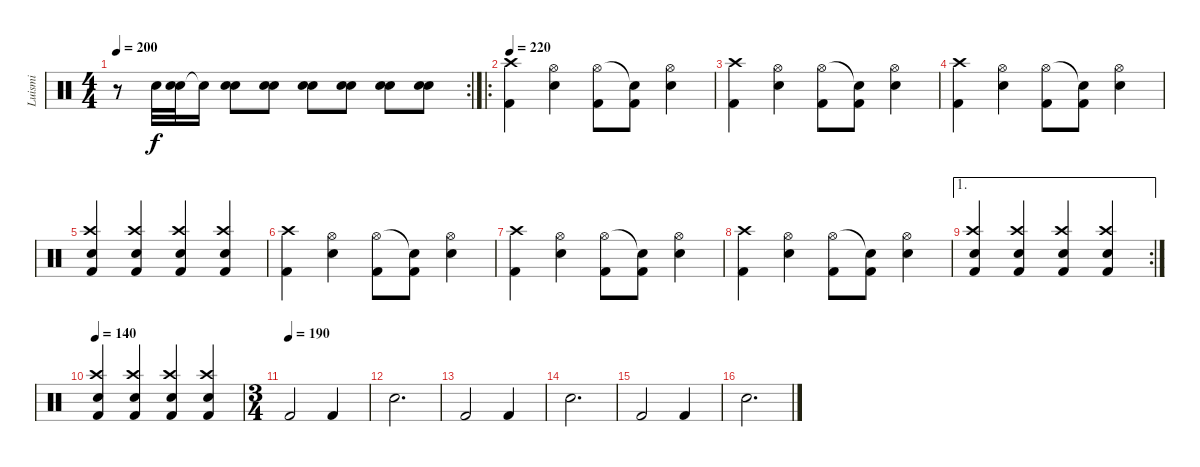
\track ("Luismi" "Luismi") {instrument percussion}
\staff {score}
\articulation defaults
\rc 2
\ts (4 4)
\tempo 200
\clef neutral
\ks c
r.8{dy f} "Snare (hit) 2".32 ("Electric Snare (hit)" "Snare (hit) 2").32 "Snare (hit)"{t}.16 ("Electric Snare (hit)" "Snare (hit) 2").8 ("Electric Snare (hit)" "Snare (hit) 2").8 ("Electric Snare (hit)" "Snare (hit) 2").8 ("Electric Snare (hit)" "Snare (hit) 2").8 ("Electric Snare (hit)" "Snare (hit) 2").8 ("Electric Snare (hit)" "Snare (hit) 2").8 |
\ro
\tempo 220
("Crash high (hit)" "Kick (hit) 2").4 ("Hi-Hat (open)" "Snare (hit) 2").4 ("Hi-Hat (open)" "Kick (hit) 2").8 ("Snare (hit)"{t} "Kick (hit) 2").8 ("Hi-Hat (open)" "Snare (hit) 2").4 |
("Crash high (hit)" "Kick (hit) 2").4 ("Hi-Hat (open)" "Snare (hit) 2").4 ("Hi-Hat (open)" "Kick (hit) 2").8 ("Snare (hit)"{t} "Kick (hit) 2").8 ("Hi-Hat (open)" "Snare (hit) 2").4 |
("Crash high (hit)" "Kick (hit) 2").4 ("Hi-Hat (open)" "Snare (hit) 2").4 ("Hi-Hat (open)" "Kick (hit) 2").8 ("Snare (hit)"{t} "Kick (hit) 2").8 ("Hi-Hat (open)" "Snare (hit) 2").4 |
("Crash high (hit)" "Snare (hit) 2" "Kick (hit) 2").4 ("Crash high (hit)" "Snare (hit) 2" "Kick (hit) 2").4 ("Crash high (hit)" "Snare (hit) 2" "Kick (hit) 2").4 ("Crash high (hit)" "Snare (hit) 2" "Kick (hit) 2").4 |
("Crash high (hit)" "Kick (hit) 2").4 ("Hi-Hat (open)" "Snare (hit) 2").4 ("Hi-Hat (open)" "Kick (hit) 2").8 ("Snare (hit)"{t} "Kick (hit) 2").8 ("Hi-Hat (open)" "Snare (hit) 2").4 |
("Crash high (hit)" "Kick (hit) 2").4 ("Hi-Hat (open)" "Snare (hit) 2").4 ("Hi-Hat (open)" "Kick (hit) 2").8 ("Snare (hit)"{t} "Kick (hit) 2").8 ("Hi-Hat (open)" "Snare (hit) 2").4 |
("Crash high (hit)" "Kick (hit) 2").4 ("Hi-Hat (open)" "Snare (hit) 2").4 ("Hi-Hat (open)" "Kick (hit) 2").8 ("Snare (hit)"{t} "Kick (hit) 2").8 ("Hi-Hat (open)" "Snare (hit) 2").4 |
\ae 1
\rc 2
("Crash high (hit)" "Snare (hit) 2" "Kick (hit) 2").4 ("Crash high (hit)" "Snare (hit) 2" "Kick (hit) 2").4 ("Crash high (hit)" "Snare (hit) 2" "Kick (hit) 2").4 ("Crash high (hit)" "Snare (hit) 2" "Kick (hit) 2").4 |
\tempo 200
\tempo 140
("Crash high (hit)" "Snare (hit) 2" "Kick (hit) 2").4 ("Crash high (hit)" "Snare (hit) 2" "Kick (hit) 2").4 ("Crash high (hit)" "Snare (hit) 2" "Kick (hit) 2").4 ("Crash high (hit)" "Snare (hit) 2" "Kick (hit) 2").4 |
\ts (3 4)
\tempo (190)
"Kick (hit) 2".2 "Kick (hit) 2".4 |
"Snare (hit) 2".2{d} |
"Kick (hit) 2".2 "Kick (hit) 2".4 |
"Snare (hit) 2".2{d} |
"Kick (hit) 2".2 "Kick (hit) 2".4 |
"Snare (hit) 2".2{d}
